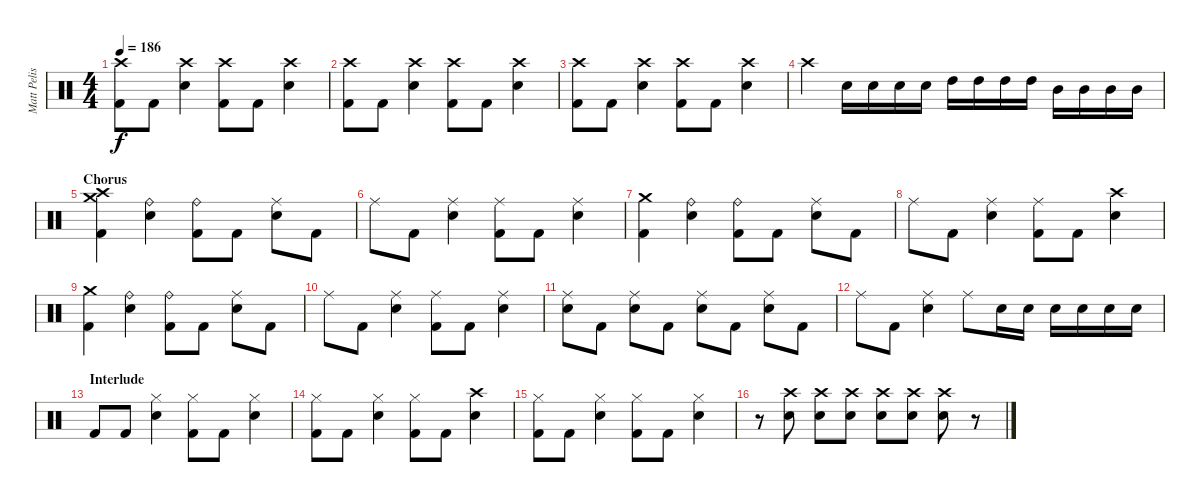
\track ("Matt Pelissier" "Matt Pelis") {instrument percussion}
\staff {score}
\articulation defaults
\ts (4 4)
\tempo 186
\clef neutral
\ks c
("Crash high (hit)" "Kick (hit) 2").8{dy f} "Kick (hit) 2".8 ("Snare (hit) 2" "Crash high (hit)").4 ("Crash high (hit)" "Kick (hit) 2").8 "Kick (hit) 2".8 ("Snare (hit) 2" "Crash high (hit)").4 |
("Crash high (hit)" "Kick (hit) 2").8 "Kick (hit) 2".8 ("Snare (hit) 2" "Crash high (hit)").4 ("Crash high (hit)" "Kick (hit) 2").8 "Kick (hit) 2".8 ("Snare (hit) 2" "Crash high (hit)").4 |
("Crash high (hit)" "Kick (hit) 2").8 "Kick (hit) 2".8 ("Snare (hit) 2" "Crash high (hit)").4 ("Crash high (hit)" "Kick (hit) 2").8 "Kick (hit) 2".8 ("Snare (hit) 2" "Crash high (hit)").4 |
"Crash high (hit)".4 "Snare (hit) 2".16 "Snare (hit) 2".16 "Snare (hit) 2".16 "Snare (hit) 2".16 "High Tom (hit)".16 "High Tom (hit)".16 "High Tom (hit)".16 "High Tom (hit)".16 "Mid Tom (hit)".16 "Mid Tom (hit)".16 "Mid Tom (hit)".16 "Mid Tom (hit)".16 |
\section ("" "Chorus")
("Crash high (hit)" "Crash medium (hit)" "Kick (hit) 2").4 ("Snare (hit) 2" "Ride (bell)").4 ("Ride (bell)" "Kick (hit) 2").8 "Kick (hit) 2".8 ("Snare (hit) 2" "Ride (middle)").8 "Kick (hit) 2".8 |
"Ride (middle)".8 "Kick (hit) 2".8 ("Snare (hit) 2" "Ride (middle)").4 ("Ride (middle)" "Kick (hit) 2").8 "Kick (hit) 2".8 ("Snare (hit) 2" "Ride (middle)").4 |
("Crash medium (hit)" "Kick (hit) 2").4 ("Snare (hit) 2" "Ride (bell)").4 ("Ride (bell)" "Kick (hit) 2").8 "Kick (hit) 2".8 ("Snare (hit) 2" "Ride (middle)").8 "Kick (hit) 2".8 |
"Ride (middle)".8 "Kick (hit) 2".8 ("Snare (hit) 2" "Ride (middle)").4 ("Ride (middle)" "Kick (hit) 2").8 "Kick (hit) 2".8 ("Snare (hit) 2" "Crash high (hit)").4 |
("Crash medium (hit)" "Kick (hit) 2").4 ("Snare (hit) 2" "Ride (bell)").4 ("Ride (bell)" "Kick (hit) 2").8 "Kick (hit) 2".8 ("Snare (hit) 2" "Ride (middle)").8 "Kick (hit) 2".8 |
"Ride (middle)".8 "Kick (hit) 2".8 ("Snare (hit) 2" "Ride (middle)").4 ("Ride (middle)" "Kick (hit) 2").8 "Kick (hit) 2".8 ("Snare (hit) 2" "Ride (middle)").4 |
("Ride (middle)" "Snare (hit) 2").8 "Kick (hit) 2".8 ("Ride (middle)" "Snare (hit) 2").8 "Kick (hit) 2".8 ("Ride (middle)" "Snare (hit) 2").8 "Kick (hit) 2".8 ("Ride (middle)" "Snare (hit) 2").8 "Kick (hit) 2".8 |
"Ride (middle)".8 "Kick (hit) 2".8 ("Ride (middle)" "Snare (hit) 2").4 "Ride (middle)".8 "Snare (hit) 2".16 "Snare (hit) 2".16 "Snare (hit) 2".16 "Snare (hit) 2".16 "Snare (hit) 2".16 "Snare (hit) 2".16 |
\section ("" "Interlude")
"Kick (hit) 2".8 "Kick (hit) 2".8 ("Snare (hit) 2" "Hi-Hat (closed)").4 ("Hi-Hat (closed)" "Kick (hit) 2").8 "Kick (hit) 2".8 ("Snare (hit) 2" "Hi-Hat (closed)").4 |
("Hi-Hat (closed)" "Kick (hit) 2").8 "Kick (hit) 2".8 ("Snare (hit) 2" "Hi-Hat (closed)").4 ("Hi-Hat (closed)" "Kick (hit) 2").8 "Kick (hit) 2".8 ("Snare (hit) 2" "Crash high (hit)").4 |
("Hi-Hat (closed)" "Kick (hit) 2").8 "Kick (hit) 2".8 ("Snare (hit) 2" "Hi-Hat (closed)").4 ("Hi-Hat (closed)" "Kick (hit) 2").8 "Kick (hit) 2".8 ("Snare (hit) 2" "Hi-Hat (closed)").4 |
r.8 ("Snare (hit) 2" "Crash high (hit)").8 ("Snare (hit) 2" "Crash high (hit)").8 ("Snare (hit) 2" "Crash high (hit)").8 ("Snare (hit) 2" "Crash high (hit)").8 ("Snare (hit) 2" "Crash high (hit)").8 ("Snare (hit) 2" "Crash high (hit)").8 r.8
